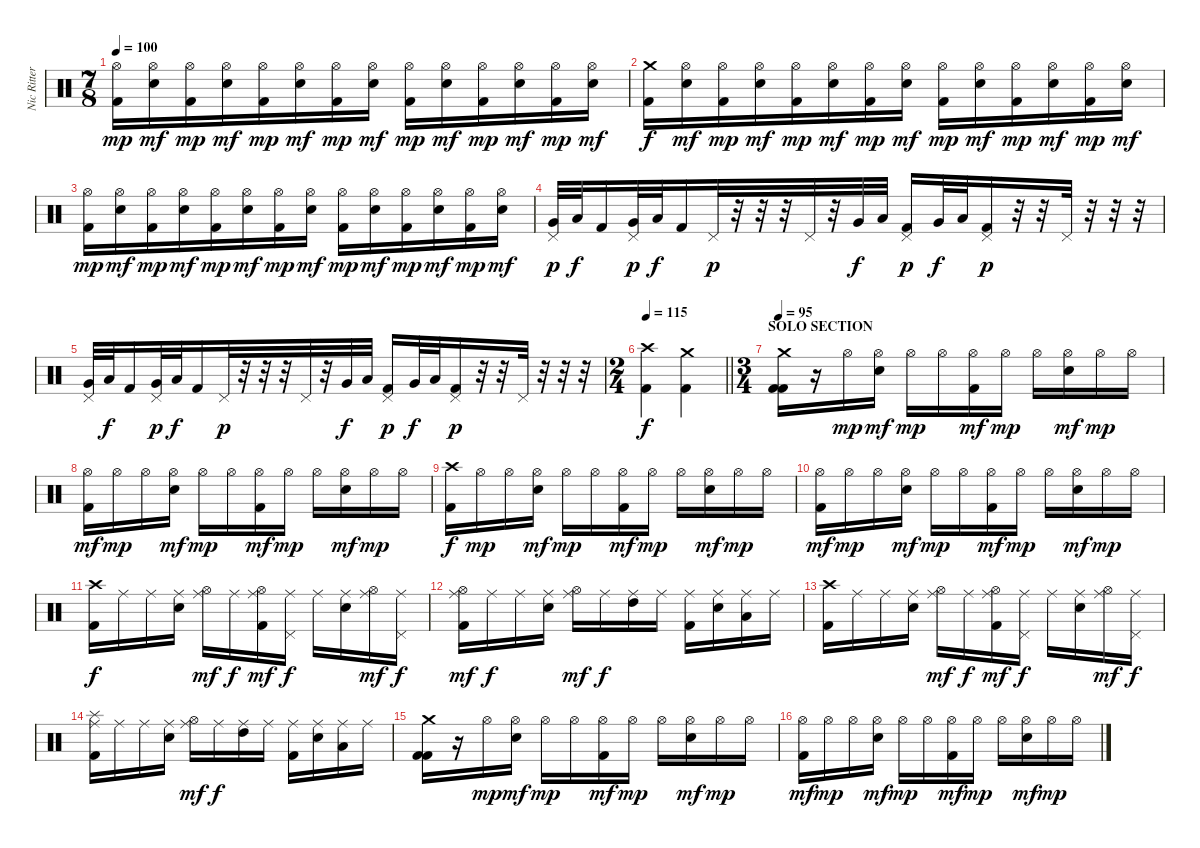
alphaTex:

\track ("Nic Ritter" "Nic Ritter") {instrument percussion}
\staff {score}
\articulation defaults
\ts (7 8)
\tempo 100
\clef neutral
\ks c
("Hi-Hat (open)" "Kick (hit) 2").16{dy mp} ("Hi-Hat (open)" "Electric Snare (hit)").16{dy mf} ("Hi-Hat (open)" "Kick (hit) 2").16{dy mp} ("Hi-Hat (open)" "Electric Snare (hit)").16{dy mf} ("Hi-Hat (open)" "Kick (hit) 2").16{dy mp} ("Hi-Hat (open)" "Electric Snare (hit)").16{dy mf} ("Hi-Hat (open)" "Kick (hit) 2").16{dy mp} ("Hi-Hat (open)" "Electric Snare (hit)").16{dy mf} ("Hi-Hat (open)" "Kick (hit) 2").16{dy mp} ("Hi-Hat (open)" "Electric Snare (hit)").16{dy mf} ("Hi-Hat (open)" "Kick (hit) 2").16{dy mp} ("Hi-Hat (open)" "Electric Snare (hit)").16{dy mf} ("Hi-Hat (open)" "Kick (hit) 2").16{dy mp} ("Hi-Hat (open)" "Electric Snare (hit)").16{dy mf} |
("Crash medium (hit)" "Kick (hit) 2").16{dy f} ("Hi-Hat (open)" "Electric Snare (hit)").16{dy mf} ("Hi-Hat (open)" "Kick (hit) 2").16{dy mp} ("Hi-Hat (open)" "Electric Snare (hit)").16{dy mf} ("Hi-Hat (open)" "Kick (hit) 2").16{dy mp} ("Hi-Hat (open)" "Electric Snare (hit)").16{dy mf} ("Hi-Hat (open)" "Kick (hit) 2").16{dy mp} ("Hi-Hat (open)" "Electric Snare (hit)").16{dy mf} ("Hi-Hat (open)" "Kick (hit) 2").16{dy mp} ("Hi-Hat (open)" "Electric Snare (hit)").16{dy mf} ("Hi-Hat (open)" "Kick (hit) 2").16{dy mp} ("Hi-Hat (open)" "Electric Snare (hit)").16{dy mf} ("Hi-Hat (open)" "Kick (hit) 2").16{dy mp} ("Hi-Hat (open)" "Electric Snare (hit)").16{dy mf} |
("Hi-Hat (open)" "Kick (hit) 2").16{dy mp} ("Hi-Hat (open)" "Electric Snare (hit)").16{dy mf} ("Hi-Hat (open)" "Kick (hit) 2").16{dy mp} ("Hi-Hat (open)" "Electric Snare (hit)").16{dy mf} ("Hi-Hat (open)" "Kick (hit) 2").16{dy mp} ("Hi-Hat (open)" "Electric Snare (hit)").16{dy mf} ("Hi-Hat (open)" "Kick (hit) 2").16{dy mp} ("Hi-Hat (open)" "Electric Snare (hit)").16{dy mf} ("Hi-Hat (open)" "Kick (hit) 2").16{dy mp} ("Hi-Hat (open)" "Electric Snare (hit)").16{dy mf} ("Hi-Hat (open)" "Kick (hit) 2").16{dy mp} ("Hi-Hat (open)" "Electric Snare (hit)").16{dy mf} ("Hi-Hat (open)" "Kick (hit) 2").16{dy mp} ("Hi-Hat (open)" "Electric Snare (hit)").16{dy mf} |
("Pedal Hi-Hat (hit)" "Very Low Tom (hit)").32{dy p} "Low Tom (hit)".32{dy f} "Kick (hit) 2".16 ("Pedal Hi-Hat (hit)" "Very Low Tom (hit)").32{dy p} "Low Tom (hit)".32{dy f} "Kick (hit) 2".16 "Pedal Hi-Hat (hit)".32{dy p} r.32 r.32 r.32 "Pedal Hi-Hat (hit)".32 r.32 "Very Low Tom (hit)".32{dy f} "Low Tom (hit)".32 ("Pedal Hi-Hat (hit)" "Kick (hit) 2").16{dy p} "Very Low Tom (hit)".32{dy f} "Low Tom (hit)".32 ("Pedal Hi-Hat (hit)" "Kick (hit) 2").16{dy p} r.32 r.32 "Pedal Hi-Hat (hit)".32 r.32 r.32 r.32 |
("Pedal Hi-Hat (hit)" "Very Low Tom (hit)").32 "Low Tom (hit)".32{dy f} "Kick (hit) 2".16 ("Pedal Hi-Hat (hit)" "Very Low Tom (hit)").32{dy p} "Low Tom (hit)".32{dy f} "Kick (hit) 2".16 "Pedal Hi-Hat (hit)".32{dy p} r.32 r.32 r.32 "Pedal Hi-Hat (hit)".32 r.32 "Very Low Tom (hit)".32{dy f} "Low Tom (hit)".32 ("Pedal Hi-Hat (hit)" "Kick (hit) 2").16{dy p} "Very Low Tom (hit)".32{dy f} "Low Tom (hit)".32 ("Pedal Hi-Hat (hit)" "Kick (hit) 2").16{dy p} r.32 r.32 "Pedal Hi-Hat (hit)".32 r.32 r.32 r.32 |
\ts (2 4)
\tempo 115
\barLineRight lightlight
("Crash high (hit)" "Kick (hit) 2").4{dy f} ("Crash medium (hit)" "Kick (hit) 2").4 |
\ts (3 4)
\section ("" "SOLO SECTION")
\tempo 95
("Crash medium (hit)" "Kick (hit) 2" "Kick (hit) 2").16 r.16 "Hi-Hat (open)".16{dy mp} ("Hi-Hat (open)" "Electric Snare (hit)").16{dy mf} "Hi-Hat (open)".16{dy mp} "Hi-Hat (open)".16 ("Hi-Hat (open)" "Kick (hit) 2").16{dy mf} "Hi-Hat (open)".16{dy mp} "Hi-Hat (open)".16 ("Hi-Hat (open)" "Electric Snare (hit)").16{dy mf} "Hi-Hat (open)".16{dy mp} "Hi-Hat (open)".16 |
("Hi-Hat (open)" "Kick (hit) 2").16{dy mf} "Hi-Hat (open)".16{dy mp} "Hi-Hat (open)".16 ("Hi-Hat (open)" "Electric Snare (hit)").16{dy mf} "Hi-Hat (open)".16{dy mp} "Hi-Hat (open)".16 ("Hi-Hat (open)" "Kick (hit) 2").16{dy mf} "Hi-Hat (open)".16{dy mp} "Hi-Hat (open)".16 ("Hi-Hat (open)" "Electric Snare (hit)").16{dy mf} "Hi-Hat (open)".16{dy mp} "Hi-Hat (open)".16 |
("Crash high (hit)" "Kick (hit) 2").16{dy f} "Hi-Hat (open)".16{dy mp} "Hi-Hat (open)".16 ("Hi-Hat (open)" "Electric Snare (hit)").16{dy mf} "Hi-Hat (open)".16{dy mp} "Hi-Hat (open)".16 ("Hi-Hat (open)" "Kick (hit) 2").16{dy mf} "Hi-Hat (open)".16{dy mp} "Hi-Hat (open)".16 ("Hi-Hat (open)" "Electric Snare (hit)").16{dy mf} "Hi-Hat (open)".16{dy mp} "Hi-Hat (open)".16 |
("Hi-Hat (open)" "Kick (hit) 2").16{dy mf} "Hi-Hat (open)".16{dy mp} "Hi-Hat (open)".16 ("Hi-Hat (open)" "Electric Snare (hit)").16{dy mf} "Hi-Hat (open)".16{dy mp} "Hi-Hat (open)".16 ("Hi-Hat (open)" "Kick (hit) 2").16{dy mf} "Hi-Hat (open)".16{dy mp} "Hi-Hat (open)".16 ("Hi-Hat (open)" "Electric Snare (hit)").16{dy mf} "Hi-Hat (open)".16{dy mp} "Hi-Hat (open)".16 |
("Crash high (hit)" "Kick (hit) 2").16{dy f} "Ride (middle)".16 "Ride (middle)".16 ("Ride (middle)" "Electric Snare (hit)").16 ("Hi-Hat (open)" "Ride (middle)").16{dy mf} "Ride (middle)".16{dy f} ("Hi-Hat (open)" "Ride (middle)" "Kick (hit) 2").16{dy mf} ("Pedal Hi-Hat (hit)" "Ride (middle)").16{dy f} "Ride (middle)".16 ("Ride (middle)" "Electric Snare (hit)").16 ("Hi-Hat (open)" "Ride (middle)").16{dy mf} ("Pedal Hi-Hat (hit)" "Ride (middle)").16{dy f} |
("Hi-Hat (open)" "Ride (middle)" "Kick (hit) 2").16{dy mf} "Ride (middle)".16{dy f} "Ride (middle)".16 ("Ride (middle)" "Electric Snare (hit)").16 ("Hi-Hat (open)" "Ride (middle)").16{dy mf} "Ride (middle)".16{dy f} ("High Tom (hit)" "Ride (middle)").16 "Ride (middle)".16 ("Ride (middle)" "Kick (hit) 2").16 ("Ride (middle)" "Electric Snare (hit)").16 ("Low Tom (hit)" "Ride (middle)").16 "Ride (middle)".16 |
("Crash high (hit)" "Kick (hit) 2").16 "Ride (middle)".16 "Ride (middle)".16 ("Ride (middle)" "Electric Snare (hit)").16 ("Hi-Hat (open)" "Ride (middle)").16{dy mf} "Ride (middle)".16{dy f} ("Hi-Hat (open)" "Ride (middle)" "Kick (hit) 2").16{dy mf} ("Pedal Hi-Hat (hit)" "Ride (middle)").16{dy f} "Ride (middle)".16 ("Ride (middle)" "Electric Snare (hit)").16 ("Hi-Hat (open)" "Ride (middle)").16{dy mf} ("Pedal Hi-Hat (hit)" "Ride (middle)").16{dy f} |
("Splash (hit)" "Ride (middle)" "Kick (hit) 2").16 "Ride (middle)".16 "Ride (middle)".16 ("Ride (middle)" "Electric Snare (hit)").16 ("Hi-Hat (open)" "Ride (middle)").16{dy mf} "Ride (middle)".16{dy f} ("High Tom (hit)" "Ride (middle)").16 "Ride (middle)".16 ("Ride (middle)" "Kick (hit) 2").16 ("Ride (middle)" "Electric Snare (hit)").16 ("Low Tom (hit)" "Ride (middle)").16 "Ride (middle)".16 |
("Crash medium (hit)" "Kick (hit) 2" "Kick (hit) 2").16 r.16 "Hi-Hat (open)".16{dy mp} ("Hi-Hat (open)" "Electric Snare (hit)").16{dy mf} "Hi-Hat (open)".16{dy mp} "Hi-Hat (open)".16 ("Hi-Hat (open)" "Kick (hit) 2").16{dy mf} "Hi-Hat (open)".16{dy mp} "Hi-Hat (open)".16 ("Hi-Hat (open)" "Electric Snare (hit)").16{dy mf} "Hi-Hat (open)".16{dy mp} "Hi-Hat (open)".16 |
("Hi-Hat (open)" "Kick (hit) 2").16{dy mf} "Hi-Hat (open)".16{dy mp} "Hi-Hat (open)".16 ("Hi-Hat (open)" "Electric Snare (hit)").16{dy mf} "Hi-Hat (open)".16{dy mp} "Hi-Hat (open)".16 ("Hi-Hat (open)" "Kick (hit) 2").16{dy mf} "Hi-Hat (open)".16{dy mp} "Hi-Hat (open)".16 ("Hi-Hat (open)" "Electric Snare (hit)").16{dy mf} "Hi-Hat (open)".16{dy mp} "Hi-Hat (open)".16
